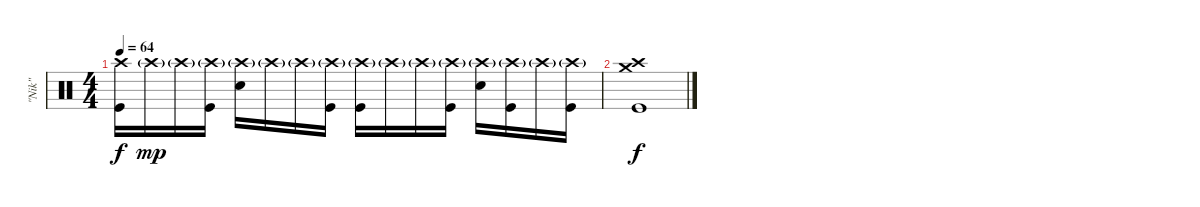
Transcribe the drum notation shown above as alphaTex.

\track ("\"Nik\"" "\"Nik\"") {instrument percussion}
\staff {score}
\articulation defaults
\ts (4 4)
\tempo 64
\clef neutral
\ks c
("Crash high (hit)" "Kick (hit)").16{dy f} "Crash high (hit)"{g}.16{dy mp} "Crash high (hit)"{g}.16 ("Crash high (hit)"{g} "Kick (hit)").16 ("Crash high (hit)"{g} "Snare (hit) 2").16 "Crash high (hit)"{g}.16 "Crash high (hit)"{g}.16 ("Crash high (hit)"{g} "Kick (hit)").16 ("Crash high (hit)"{g} "Kick (hit)").16 "Crash high (hit)"{g}.16 "Crash high (hit)"{g}.16 ("Crash high (hit)"{g} "Kick (hit)").16 ("Crash high (hit)"{g} "Snare (hit) 2").16 ("Crash high (hit)"{g} "Kick (hit)").16 "Crash high (hit)"{g}.16 ("Crash high (hit)"{g} "Kick (hit)").16 |
("Crash medium (hit)" "Crash high (hit)" "Kick (hit)").1{dy f}
